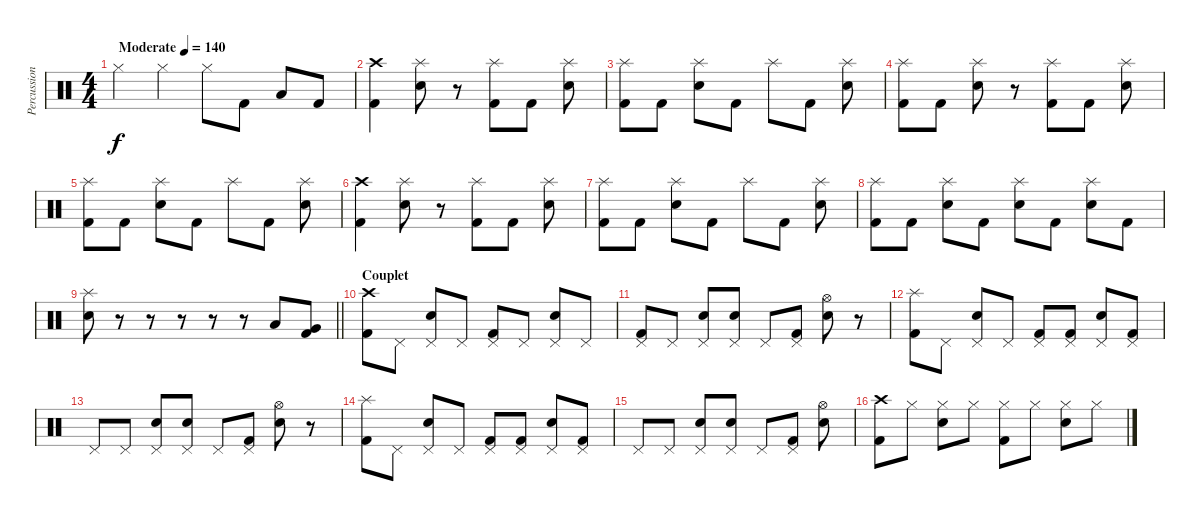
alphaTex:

\track ("Percussions" "Percussion") {instrument percussion}
\staff {score}
\articulation defaults
\ts (4 4)
\tempo (140 "Moderate")
\clef neutral
\ks c "Hi-Hat (closed)".4{dy f} "Hi-Hat (closed)".4 "Hi-Hat (closed)".8 "Kick (hit) 2".8 "Low Tom (hit)".8 "Kick (hit) 2".8
|
("Crash high (hit)" "Kick (hit) 2").4 ("Splash (hit)" "Electric Snare (hit)").8 r.8 ("Splash (hit)" "Kick (hit) 2").8 "Kick (hit) 2".8 ("Splash (hit)" "Electric Snare (hit)").8 |
("Splash (hit)" "Kick (hit) 2").8 "Kick (hit) 2".8 ("Splash (hit)" "Electric Snare (hit)").8 "Kick (hit) 2".8 "Splash (hit)".8 "Kick (hit) 2".8 ("Splash (hit)" "Electric Snare (hit)").8 |
("Splash (hit)" "Kick (hit) 2").8 "Kick (hit) 2".8 ("Splash (hit)" "Electric Snare (hit)").8 r.8 ("Splash (hit)" "Kick (hit) 2").8 "Kick (hit) 2".8 ("Splash (hit)" "Electric Snare (hit)").8 |
("Splash (hit)" "Kick (hit) 2").8 "Kick (hit) 2".8 ("Splash (hit)" "Electric Snare (hit)").8 "Kick (hit) 2".8 "Splash (hit)".8 "Kick (hit) 2".8 ("Splash (hit)" "Electric Snare (hit)").8 |
("Crash high (hit)" "Kick (hit) 2").4 ("Splash (hit)" "Electric Snare (hit)").8 r.8 ("Splash (hit)" "Kick (hit) 2").8 "Kick (hit) 2".8 ("Splash (hit)" "Electric Snare (hit)").8 |
("Splash (hit)" "Kick (hit) 2").8 "Kick (hit) 2".8 ("Splash (hit)" "Electric Snare (hit)").8 "Kick (hit) 2".8 "Splash (hit)".8 "Kick (hit) 2".8 ("Splash (hit)" "Electric Snare (hit)").8 |
("Splash (hit)" "Kick (hit) 2").8 "Kick (hit) 2".8 ("Splash (hit)" "Electric Snare (hit)").8 "Kick (hit) 2".8 ("Splash (hit)" "Electric Snare (hit)").8 "Kick (hit) 2".8 ("Splash (hit)" "Electric Snare (hit)").8 "Kick (hit) 2".8 |
\barLineRight lightlight
("Splash (hit)" "Electric Snare (hit)").8 r.8 r.8 r.8 r.8 r.8 "Low Tom (hit)".8 ("Very Low Tom (hit)" "Kick (hit) 2").8 |
\section ("" "Couplet")
("Crash high (hit)" "Kick (hit) 2").8 "Pedal Hi-Hat (hit)".8 ("Pedal Hi-Hat (hit)" "Electric Snare (hit)").8 "Pedal Hi-Hat (hit)".8 ("Pedal Hi-Hat (hit)" "Kick (hit) 2").8 "Pedal Hi-Hat (hit)".8 ("Pedal Hi-Hat (hit)" "Electric Snare (hit)").8 "Pedal Hi-Hat (hit)".8 |
("Pedal Hi-Hat (hit)" "Kick (hit) 2").8 "Pedal Hi-Hat (hit)".8 ("Pedal Hi-Hat (hit)" "Electric Snare (hit)").8 ("Pedal Hi-Hat (hit)" "Electric Snare (hit)").8 "Pedal Hi-Hat (hit)".8 ("Pedal Hi-Hat (hit)" "Kick (hit) 2").8 ("Hi-Hat (open)" "Electric Snare (hit)").8 r.8 |
("Splash (hit)" "Kick (hit) 2").8 "Pedal Hi-Hat (hit)".8 ("Pedal Hi-Hat (hit)" "Electric Snare (hit)").8 "Pedal Hi-Hat (hit)".8 ("Pedal Hi-Hat (hit)" "Kick (hit) 2").8 ("Pedal Hi-Hat (hit)" "Kick (hit) 2").8 ("Pedal Hi-Hat (hit)" "Electric Snare (hit)").8 ("Pedal Hi-Hat (hit)" "Kick (hit) 2").8 |
"Pedal Hi-Hat (hit)".8 "Pedal Hi-Hat (hit)".8 ("Pedal Hi-Hat (hit)" "Electric Snare (hit)").8 ("Pedal Hi-Hat (hit)" "Electric Snare (hit)").8 "Pedal Hi-Hat (hit)".8 ("Pedal Hi-Hat (hit)" "Kick (hit) 2").8 ("Hi-Hat (open)" "Electric Snare (hit)").8 r.8 |
("Splash (hit)" "Kick (hit) 2").8 "Pedal Hi-Hat (hit)".8 ("Pedal Hi-Hat (hit)" "Electric Snare (hit)").8 "Pedal Hi-Hat (hit)".8 ("Pedal Hi-Hat (hit)" "Kick (hit) 2").8 ("Pedal Hi-Hat (hit)" "Kick (hit) 2").8 ("Pedal Hi-Hat (hit)" "Electric Snare (hit)").8 ("Pedal Hi-Hat (hit)" "Kick (hit) 2").8 |
"Pedal Hi-Hat (hit)".8 "Pedal Hi-Hat (hit)".8 ("Pedal Hi-Hat (hit)" "Electric Snare (hit)").8 ("Pedal Hi-Hat (hit)" "Electric Snare (hit)").8 "Pedal Hi-Hat (hit)".8 ("Pedal Hi-Hat (hit)" "Kick (hit) 2").8 ("Hi-Hat (open)" "Electric Snare (hit)").8 |
("Crash high (hit)" "Kick (hit) 2").8 "Hi-Hat (closed)".8 ("Hi-Hat (closed)" "Electric Snare (hit)").8 "Hi-Hat (closed)".8 ("Hi-Hat (closed)" "Kick (hit) 2").8 "Hi-Hat (closed)".8 ("Hi-Hat (closed)" "Electric Snare (hit)").8 "Hi-Hat (closed)".8
